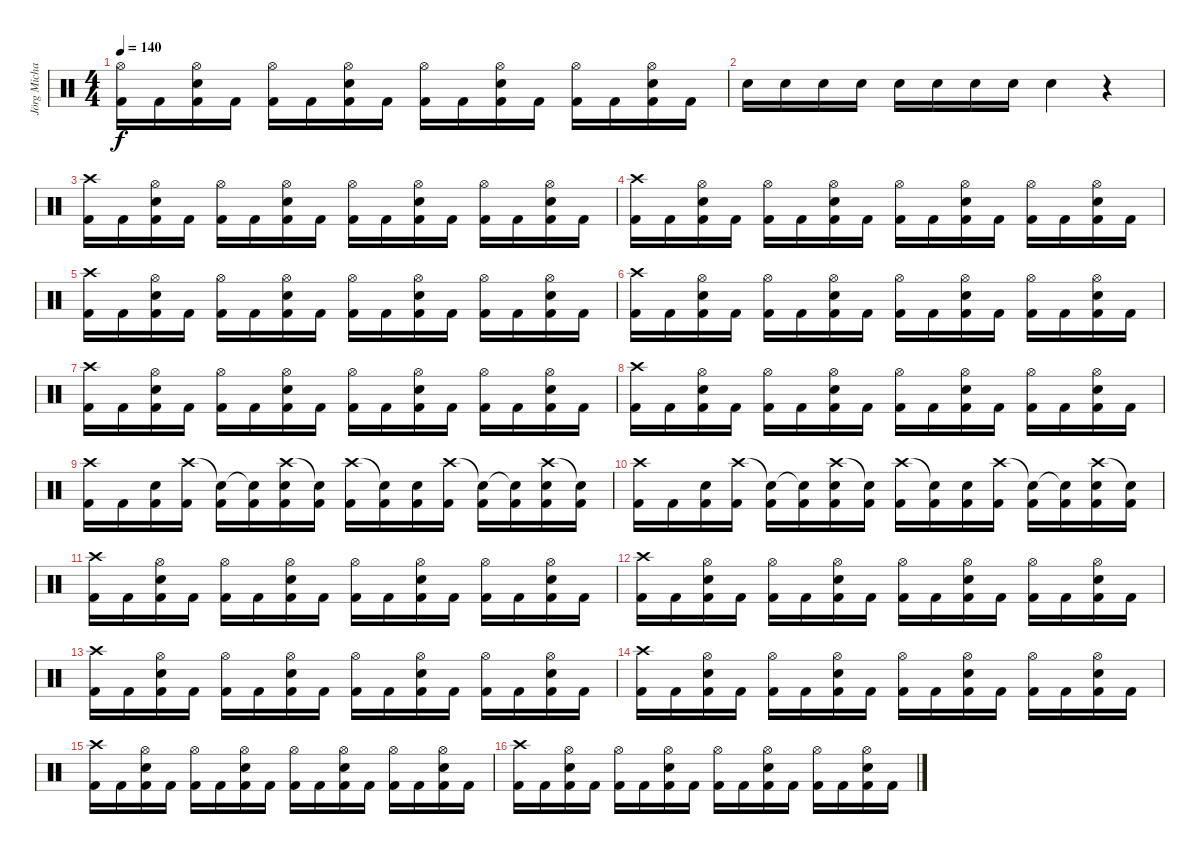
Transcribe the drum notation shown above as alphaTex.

\track ("Jörg Michael" "Jörg Micha") {instrument percussion}
\staff {score}
\articulation defaults
\ts (4 4)
\tempo 140
\clef neutral
\ks c
("Hi-Hat (open)" "Kick (hit) 2").16{dy f} "Kick (hit) 2".16 ("Electric Snare (hit)" "Kick (hit) 2" "Hi-Hat (open)").16 "Kick (hit) 2".16 ("Kick (hit) 2" "Hi-Hat (open)").16 "Kick (hit) 2".16 ("Electric Snare (hit)" "Kick (hit) 2" "Hi-Hat (open)").16 "Kick (hit) 2".16 ("Kick (hit) 2" "Hi-Hat (open)").16 "Kick (hit) 2".16 ("Electric Snare (hit)" "Kick (hit) 2" "Hi-Hat (open)").16 "Kick (hit) 2".16 ("Kick (hit) 2" "Hi-Hat (open)").16 "Kick (hit) 2".16 ("Electric Snare (hit)" "Kick (hit) 2" "Hi-Hat (open)").16 "Kick (hit) 2".16 |
"Electric Snare (hit)".16 "Electric Snare (hit)".16 "Electric Snare (hit)".16 "Electric Snare (hit)".16 "Electric Snare (hit)".16 "Electric Snare (hit)".16 "Electric Snare (hit)".16 "Electric Snare (hit)".16 "Electric Snare (hit)".4 r.4 |
("Crash high (hit)" "Kick (hit) 2").16 "Kick (hit) 2".16 ("Electric Snare (hit)" "Kick (hit) 2" "Hi-Hat (open)").16 "Kick (hit) 2".16 ("Kick (hit) 2" "Hi-Hat (open)").16 "Kick (hit) 2".16 ("Electric Snare (hit)" "Kick (hit) 2" "Hi-Hat (open)").16 "Kick (hit) 2".16 ("Kick (hit) 2" "Hi-Hat (open)").16 "Kick (hit) 2".16 ("Electric Snare (hit)" "Kick (hit) 2" "Hi-Hat (open)").16 "Kick (hit) 2".16 ("Kick (hit) 2" "Hi-Hat (open)").16 "Kick (hit) 2".16 ("Electric Snare (hit)" "Kick (hit) 2" "Hi-Hat (open)").16 "Kick (hit) 2".16 |
("Crash high (hit)" "Kick (hit) 2").16 "Kick (hit) 2".16 ("Electric Snare (hit)" "Kick (hit) 2" "Hi-Hat (open)").16 "Kick (hit) 2".16 ("Kick (hit) 2" "Hi-Hat (open)").16 "Kick (hit) 2".16 ("Electric Snare (hit)" "Kick (hit) 2" "Hi-Hat (open)").16 "Kick (hit) 2".16 ("Kick (hit) 2" "Hi-Hat (open)").16 "Kick (hit) 2".16 ("Electric Snare (hit)" "Kick (hit) 2" "Hi-Hat (open)").16 "Kick (hit) 2".16 ("Kick (hit) 2" "Hi-Hat (open)").16 "Kick (hit) 2".16 ("Electric Snare (hit)" "Kick (hit) 2" "Hi-Hat (open)").16 "Kick (hit) 2".16 |
("Crash high (hit)" "Kick (hit) 2").16 "Kick (hit) 2".16 ("Electric Snare (hit)" "Kick (hit) 2" "Hi-Hat (open)").16 "Kick (hit) 2".16 ("Kick (hit) 2" "Hi-Hat (open)").16 "Kick (hit) 2".16 ("Electric Snare (hit)" "Kick (hit) 2" "Hi-Hat (open)").16 "Kick (hit) 2".16 ("Kick (hit) 2" "Hi-Hat (open)").16 "Kick (hit) 2".16 ("Electric Snare (hit)" "Kick (hit) 2" "Hi-Hat (open)").16 "Kick (hit) 2".16 ("Kick (hit) 2" "Hi-Hat (open)").16 "Kick (hit) 2".16 ("Electric Snare (hit)" "Kick (hit) 2" "Hi-Hat (open)").16 "Kick (hit) 2".16 |
("Crash high (hit)" "Kick (hit) 2").16 "Kick (hit) 2".16 ("Electric Snare (hit)" "Kick (hit) 2" "Hi-Hat (open)").16 "Kick (hit) 2".16 ("Kick (hit) 2" "Hi-Hat (open)").16 "Kick (hit) 2".16 ("Electric Snare (hit)" "Kick (hit) 2" "Hi-Hat (open)").16 "Kick (hit) 2".16 ("Kick (hit) 2" "Hi-Hat (open)").16 "Kick (hit) 2".16 ("Electric Snare (hit)" "Kick (hit) 2" "Hi-Hat (open)").16 "Kick (hit) 2".16 ("Kick (hit) 2" "Hi-Hat (open)").16 "Kick (hit) 2".16 ("Electric Snare (hit)" "Kick (hit) 2" "Hi-Hat (open)").16 "Kick (hit) 2".16 |
("Crash high (hit)" "Kick (hit) 2").16 "Kick (hit) 2".16 ("Electric Snare (hit)" "Kick (hit) 2" "Hi-Hat (open)").16 "Kick (hit) 2".16 ("Kick (hit) 2" "Hi-Hat (open)").16 "Kick (hit) 2".16 ("Electric Snare (hit)" "Kick (hit) 2" "Hi-Hat (open)").16 "Kick (hit) 2".16 ("Kick (hit) 2" "Hi-Hat (open)").16 "Kick (hit) 2".16 ("Electric Snare (hit)" "Kick (hit) 2" "Hi-Hat (open)").16 "Kick (hit) 2".16 ("Kick (hit) 2" "Hi-Hat (open)").16 "Kick (hit) 2".16 ("Electric Snare (hit)" "Kick (hit) 2" "Hi-Hat (open)").16 "Kick (hit) 2".16 |
("Crash high (hit)" "Kick (hit) 2").16 "Kick (hit) 2".16 ("Electric Snare (hit)" "Kick (hit) 2" "Hi-Hat (open)").16 "Kick (hit) 2".16 ("Kick (hit) 2" "Hi-Hat (open)").16 "Kick (hit) 2".16 ("Electric Snare (hit)" "Kick (hit) 2" "Hi-Hat (open)").16 "Kick (hit) 2".16 ("Kick (hit) 2" "Hi-Hat (open)").16 "Kick (hit) 2".16 ("Electric Snare (hit)" "Kick (hit) 2" "Hi-Hat (open)").16 "Kick (hit) 2".16 ("Kick (hit) 2" "Hi-Hat (open)").16 "Kick (hit) 2".16 ("Electric Snare (hit)" "Kick (hit) 2" "Hi-Hat (open)").16 "Kick (hit) 2".16 |
("Crash high (hit)" "Kick (hit) 2").16 "Kick (hit) 2".16 ("Electric Snare (hit)" "Kick (hit) 2").16 ("Crash high (hit)" "Kick (hit) 2").16 ("Snare (hit)"{t} "Kick (hit) 2").16 ("Snare (hit)"{t} "Kick (hit) 2").16 ("Crash high (hit)" "Kick (hit) 2" "Electric Snare (hit)").16 ("Snare (hit)"{t} "Kick (hit) 2").16 ("Crash high (hit)" "Kick (hit) 2").16 ("Snare (hit)"{t} "Kick (hit) 2").16 ("Electric Snare (hit)" "Kick (hit) 2").16 ("Crash high (hit)" "Kick (hit) 2").16 ("Snare (hit)"{t} "Kick (hit) 2").16 ("Snare (hit)"{t} "Kick (hit) 2").16 ("Crash high (hit)" "Kick (hit) 2" "Electric Snare (hit)").16 ("Snare (hit)"{t} "Kick (hit) 2").16 |
("Crash high (hit)" "Kick (hit) 2").16 "Kick (hit) 2".16 ("Electric Snare (hit)" "Kick (hit) 2").16 ("Crash high (hit)" "Kick (hit) 2").16 ("Snare (hit)"{t} "Kick (hit) 2").16 ("Snare (hit)"{t} "Kick (hit) 2").16 ("Crash high (hit)" "Kick (hit) 2" "Electric Snare (hit)").16 ("Snare (hit)"{t} "Kick (hit) 2").16 ("Crash high (hit)" "Kick (hit) 2").16 ("Snare (hit)"{t} "Kick (hit) 2").16 ("Electric Snare (hit)" "Kick (hit) 2").16 ("Crash high (hit)" "Kick (hit) 2").16 ("Snare (hit)"{t} "Kick (hit) 2").16 ("Snare (hit)"{t} "Kick (hit) 2").16 ("Crash high (hit)" "Kick (hit) 2" "Electric Snare (hit)").16 ("Snare (hit)"{t} "Kick (hit) 2").16 |
("Crash high (hit)" "Kick (hit) 2").16 "Kick (hit) 2".16 ("Electric Snare (hit)" "Kick (hit) 2" "Hi-Hat (open)").16 "Kick (hit) 2".16 ("Kick (hit) 2" "Hi-Hat (open)").16 "Kick (hit) 2".16 ("Electric Snare (hit)" "Kick (hit) 2" "Hi-Hat (open)").16 "Kick (hit) 2".16 ("Kick (hit) 2" "Hi-Hat (open)").16 "Kick (hit) 2".16 ("Electric Snare (hit)" "Kick (hit) 2" "Hi-Hat (open)").16 "Kick (hit) 2".16 ("Kick (hit) 2" "Hi-Hat (open)").16 "Kick (hit) 2".16 ("Electric Snare (hit)" "Kick (hit) 2" "Hi-Hat (open)").16 "Kick (hit) 2".16 |
("Crash high (hit)" "Kick (hit) 2").16 "Kick (hit) 2".16 ("Electric Snare (hit)" "Kick (hit) 2" "Hi-Hat (open)").16 "Kick (hit) 2".16 ("Kick (hit) 2" "Hi-Hat (open)").16 "Kick (hit) 2".16 ("Electric Snare (hit)" "Kick (hit) 2" "Hi-Hat (open)").16 "Kick (hit) 2".16 ("Kick (hit) 2" "Hi-Hat (open)").16 "Kick (hit) 2".16 ("Electric Snare (hit)" "Kick (hit) 2" "Hi-Hat (open)").16 "Kick (hit) 2".16 ("Kick (hit) 2" "Hi-Hat (open)").16 "Kick (hit) 2".16 ("Electric Snare (hit)" "Kick (hit) 2" "Hi-Hat (open)").16 "Kick (hit) 2".16 |
("Crash high (hit)" "Kick (hit) 2").16 "Kick (hit) 2".16 ("Electric Snare (hit)" "Kick (hit) 2" "Hi-Hat (open)").16 "Kick (hit) 2".16 ("Kick (hit) 2" "Hi-Hat (open)").16 "Kick (hit) 2".16 ("Electric Snare (hit)" "Kick (hit) 2" "Hi-Hat (open)").16 "Kick (hit) 2".16 ("Kick (hit) 2" "Hi-Hat (open)").16 "Kick (hit) 2".16 ("Electric Snare (hit)" "Kick (hit) 2" "Hi-Hat (open)").16 "Kick (hit) 2".16 ("Kick (hit) 2" "Hi-Hat (open)").16 "Kick (hit) 2".16 ("Electric Snare (hit)" "Kick (hit) 2" "Hi-Hat (open)").16 "Kick (hit) 2".16 |
("Crash high (hit)" "Kick (hit) 2").16 "Kick (hit) 2".16 ("Electric Snare (hit)" "Kick (hit) 2" "Hi-Hat (open)").16 "Kick (hit) 2".16 ("Kick (hit) 2" "Hi-Hat (open)").16 "Kick (hit) 2".16 ("Electric Snare (hit)" "Kick (hit) 2" "Hi-Hat (open)").16 "Kick (hit) 2".16 ("Kick (hit) 2" "Hi-Hat (open)").16 "Kick (hit) 2".16 ("Electric Snare (hit)" "Kick (hit) 2" "Hi-Hat (open)").16 "Kick (hit) 2".16 ("Kick (hit) 2" "Hi-Hat (open)").16 "Kick (hit) 2".16 ("Electric Snare (hit)" "Kick (hit) 2" "Hi-Hat (open)").16 "Kick (hit) 2".16 |
("Crash high (hit)" "Kick (hit) 2").16 "Kick (hit) 2".16 ("Electric Snare (hit)" "Kick (hit) 2" "Hi-Hat (open)").16 "Kick (hit) 2".16 ("Kick (hit) 2" "Hi-Hat (open)").16 "Kick (hit) 2".16 ("Electric Snare (hit)" "Kick (hit) 2" "Hi-Hat (open)").16 "Kick (hit) 2".16 ("Kick (hit) 2" "Hi-Hat (open)").16 "Kick (hit) 2".16 ("Electric Snare (hit)" "Kick (hit) 2" "Hi-Hat (open)").16 "Kick (hit) 2".16 ("Kick (hit) 2" "Hi-Hat (open)").16 "Kick (hit) 2".16 ("Electric Snare (hit)" "Kick (hit) 2" "Hi-Hat (open)").16 "Kick (hit) 2".16 |
("Crash high (hit)" "Kick (hit) 2").16 "Kick (hit) 2".16 ("Electric Snare (hit)" "Kick (hit) 2" "Hi-Hat (open)").16 "Kick (hit) 2".16 ("Kick (hit) 2" "Hi-Hat (open)").16 "Kick (hit) 2".16 ("Electric Snare (hit)" "Kick (hit) 2" "Hi-Hat (open)").16 "Kick (hit) 2".16 ("Kick (hit) 2" "Hi-Hat (open)").16 "Kick (hit) 2".16 ("Electric Snare (hit)" "Kick (hit) 2" "Hi-Hat (open)").16 "Kick (hit) 2".16 ("Kick (hit) 2" "Hi-Hat (open)").16 "Kick (hit) 2".16 ("Electric Snare (hit)" "Kick (hit) 2" "Hi-Hat (open)").16 "Kick (hit) 2".16
